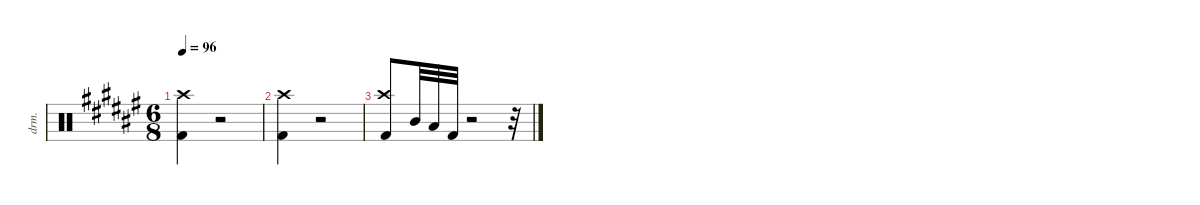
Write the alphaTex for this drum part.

\defaultSystemsLayout 4
\hideDynamics
\bracketExtendMode nobrackets
\otherSystemsTrackNameOrientation horizontal
\track ("Drumkit" "drm.") {instrument percussion}
\staff {score}
\articulation defaults
\ts (6 8)
\tempo 96
\clef neutral
\ks f#
("Kick (hit) 2"{acc forcenatural} "Crash high (hit)"{acc #}).4{dy ff beam Down} r.2{beam Down} |
("Kick (hit) 2"{acc forcenatural} "Crash high (hit)"{acc #}).4{beam Down} r.2{beam Down} |
("Kick (hit) 2"{acc forcenatural} "Crash high (hit)"{acc #}).8{beam Up} "Mid Tom (hit)"{acc forcenatural}.32{beam Up} "Low Tom (hit)"{acc forcenatural}.32{beam Up} "Kick (hit) 2"{acc forcenatural}.32 r.2{beam Up} r.32{beam Up}
